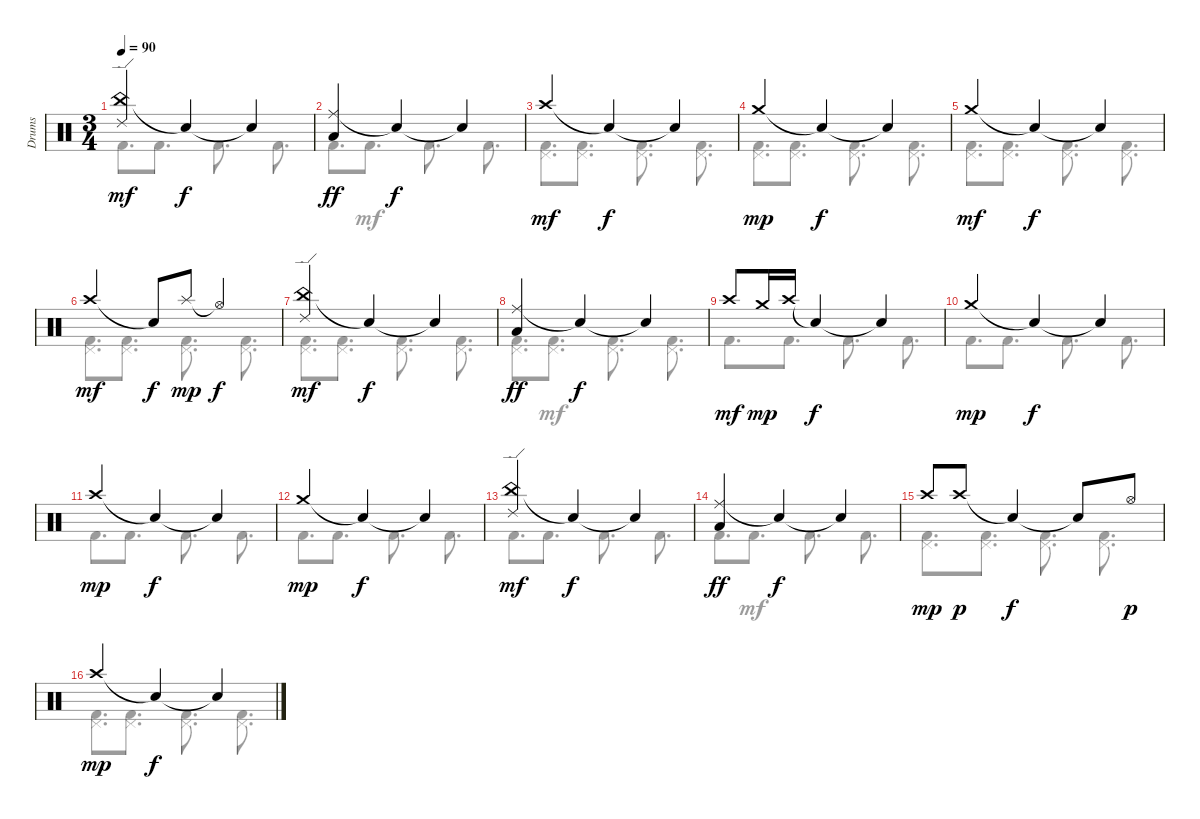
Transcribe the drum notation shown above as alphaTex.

\track ("Drums" "Drums") {instrument percussion}
\staff {score}
\articulation defaults
\voice
\ts (3 4)
\tempo 90
\clef neutral
\ks c
("China (hit)" "Ride (edge) 2").4{dy mf} "Snare (hit)"{t}.4{dy f} "Snare (hit)"{t}.4 |
("Ride (middle)" "Low Tom (hit)").4{dy ff} "Snare (hit)"{t}.4{dy f} "Snare (hit)"{t}.4 |
"Crash high (hit)".4{dy mf} "Snare (hit)"{t}.4{dy f} "Snare (hit)"{t}.4 |
"Crash medium (hit)".4{dy mp} "Snare (hit)"{t}.4{dy f} "Snare (hit)"{t}.4 |
"Crash medium (hit)".4{dy mf} "Snare (hit)"{t}.4{dy f} "Snare (hit)"{t}.4 |
"Crash high (hit)".4{dy mf} "Snare (hit)"{t}.8{dy f} "Splash (hit)".8{dy mp} "Hi-Hat (open)"{t}.4{dy f} |
("China (hit)" "Ride (edge) 2").4{dy mf} "Snare (hit)"{t}.4{dy f} "Snare (hit)"{t}.4 |
("Ride (middle)" "Low Tom (hit)").4{dy ff} "Snare (hit)"{t}.4{dy f} "Snare (hit)"{t}.4 |
"Crash high (hit)".8{dy mf} "Crash medium (hit)".16{dy mp} "Crash high (hit)".16 "Snare (hit)"{t}.4{dy f} "Snare (hit)"{t}.4 |
"Crash medium (hit)".4{dy mp} "Snare (hit)"{t}.4{dy f} "Snare (hit)"{t}.4 |
"Crash high (hit)".4{dy mp} "Snare (hit)"{t}.4{dy f} "Snare (hit)"{t}.4 |
"Crash medium (hit)".4{dy mp} "Snare (hit)"{t}.4{dy f} "Snare (hit)"{t}.4 |
("China (hit)" "Ride (edge) 2").4{dy mf} "Snare (hit)"{t}.4{dy f} "Snare (hit)"{t}.4 |
("Ride (middle)" "Low Tom (hit)").4{dy ff} "Snare (hit)"{t}.4{dy f} "Snare (hit)"{t}.4 |
"Crash high (hit)".8{dy mp} "Crash high (hit)".8{dy p} "Snare (hit)"{t}.4{dy f} "Snare (hit)"{t}.8 "Hi-Hat (open)".8{dy p} |
"Crash high (hit)".4{dy mp} "Snare (hit)"{t}.4{dy f} "Snare (hit)"{t}.4
\voice
\clef neutral
\ottava regular
\simile none
\ks c "Kick (hit) 2".8{d dy mf} "Kick (hit) 2".8{d} "Kick (hit) 2".8{d} "Kick (hit) 2".8{d}
|
"Kick (hit) 2".8{d dy ff} "Kick (hit) 2".8{d dy mf} "Kick (hit) 2".8{d} "Kick (hit) 2".8{d} |
("Pedal Hi-Hat (hit)" "Kick (hit) 2").8{d} ("Pedal Hi-Hat (hit)" "Kick (hit) 2").8{d} ("Pedal Hi-Hat (hit)" "Kick (hit) 2").8{d} ("Pedal Hi-Hat (hit)" "Kick (hit) 2").8{d} |
("Pedal Hi-Hat (hit)" "Kick (hit) 2").8{d} ("Pedal Hi-Hat (hit)" "Kick (hit) 2").8{d} ("Pedal Hi-Hat (hit)" "Kick (hit) 2").8{d} ("Pedal Hi-Hat (hit)" "Kick (hit) 2").8{d} |
("Pedal Hi-Hat (hit)" "Kick (hit) 2").8{d} ("Pedal Hi-Hat (hit)" "Kick (hit) 2").8{d} ("Pedal Hi-Hat (hit)" "Kick (hit) 2").8{d} ("Pedal Hi-Hat (hit)" "Kick (hit) 2").8{d} |
("Pedal Hi-Hat (hit)" "Kick (hit) 2").8{d} ("Pedal Hi-Hat (hit)" "Kick (hit) 2").8{d} ("Pedal Hi-Hat (hit)" "Kick (hit) 2").8{d} ("Pedal Hi-Hat (hit)" "Kick (hit) 2").8{d} |
("Pedal Hi-Hat (hit)" "Kick (hit) 2").8{d} ("Pedal Hi-Hat (hit)" "Kick (hit) 2").8{d} ("Pedal Hi-Hat (hit)" "Kick (hit) 2").8{d} ("Pedal Hi-Hat (hit)" "Kick (hit) 2").8{d} |
("Pedal Hi-Hat (hit)" "Kick (hit) 2").8{d dy ff} ("Pedal Hi-Hat (hit)" "Kick (hit) 2").8{d dy mf} ("Pedal Hi-Hat (hit)" "Kick (hit) 2").8{d} ("Pedal Hi-Hat (hit)" "Kick (hit) 2").8{d} |
"Kick (hit) 2".8{d} "Kick (hit) 2".8{d} "Kick (hit) 2".8{d} "Kick (hit) 2".8{d} |
"Kick (hit) 2".8{d} "Kick (hit) 2".8{d} "Kick (hit) 2".8{d} "Kick (hit) 2".8{d} |
"Kick (hit) 2".8{d} "Kick (hit) 2".8{d} "Kick (hit) 2".8{d} "Kick (hit) 2".8{d} |
"Kick (hit) 2".8{d} "Kick (hit) 2".8{d} "Kick (hit) 2".8{d} "Kick (hit) 2".8{d} |
"Kick (hit) 2".8{d} "Kick (hit) 2".8{d} "Kick (hit) 2".8{d} "Kick (hit) 2".8{d} |
"Kick (hit) 2".8{d dy ff} "Kick (hit) 2".8{d dy mf} "Kick (hit) 2".8{d} "Kick (hit) 2".8{d} |
("Pedal Hi-Hat (hit)" "Kick (hit) 2").8{d} ("Pedal Hi-Hat (hit)" "Kick (hit) 2").8{d} ("Pedal Hi-Hat (hit)" "Kick (hit) 2").8{d} ("Pedal Hi-Hat (hit)" "Kick (hit) 2").8{d} |
("Pedal Hi-Hat (hit)" "Kick (hit) 2").8{d} ("Pedal Hi-Hat (hit)" "Kick (hit) 2").8{d} ("Pedal Hi-Hat (hit)" "Kick (hit) 2").8{d} ("Pedal Hi-Hat (hit)" "Kick (hit) 2").8{d}
